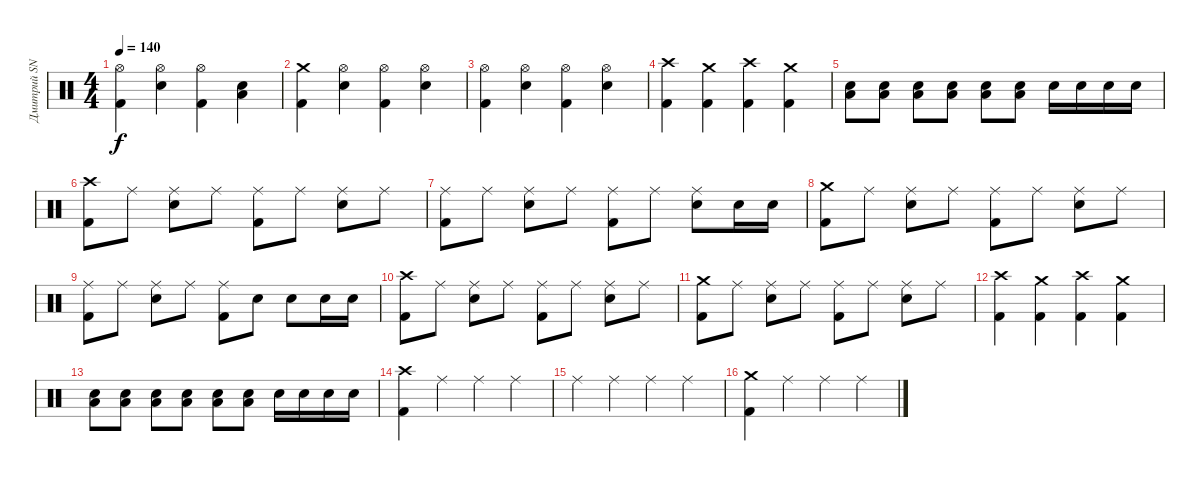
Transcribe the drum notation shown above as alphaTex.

\track ("Дмитрий SNAKE Хакимов" "Дмитрий SN") {instrument percussion}
\staff {score}
\articulation defaults
\ts (4 4)
\tempo 140
\clef neutral
\ks c
("Hi-Hat (open)" "Kick (hit) 2").4{dy f} ("Hi-Hat (open)" "Snare (hit) 2").4 ("Hi-Hat (open)" "Kick (hit) 2").4 ("Snare (hit) 2" "Low Tom (hit)").4 |
("Crash medium (hit)" "Kick (hit) 2").4 ("Hi-Hat (open)" "Snare (hit) 2").4 ("Hi-Hat (open)" "Kick (hit) 2").4 ("Hi-Hat (open)" "Snare (hit) 2").4 |
("Hi-Hat (open)" "Kick (hit) 2").4 ("Hi-Hat (open)" "Snare (hit) 2").4 ("Hi-Hat (open)" "Kick (hit) 2").4 ("Hi-Hat (open)" "Snare (hit) 2").4 |
("Crash high (hit)" "Kick (hit) 2").4 ("Crash medium (hit)" "Kick (hit) 2").4 ("Crash high (hit)" "Kick (hit) 2").4 ("Crash medium (hit)" "Kick (hit) 2").4 |
("Snare (hit) 2" "Low Tom (hit)").8 ("Snare (hit) 2" "Low Tom (hit)").8 ("Snare (hit) 2" "Low Tom (hit)").8 ("Snare (hit) 2" "Low Tom (hit)").8 ("Snare (hit) 2" "Low Tom (hit)").8 ("Snare (hit) 2" "Low Tom (hit)").8 "Snare (hit) 2".16 "Snare (hit) 2".16 "Snare (hit) 2".16 "Snare (hit) 2".16 |
("Crash high (hit)" "Kick (hit) 2").8 "Ride (middle)".8 ("Ride (middle)" "Snare (hit) 2").8 "Ride (middle)".8 ("Ride (middle)" "Kick (hit) 2").8 "Ride (middle)".8 ("Ride (middle)" "Snare (hit) 2").8 "Ride (middle)".8 |
("Ride (middle)" "Kick (hit) 2").8 "Ride (middle)".8 ("Ride (middle)" "Snare (hit) 2").8 "Ride (middle)".8 ("Ride (middle)" "Kick (hit) 2").8 "Ride (middle)".8 ("Ride (middle)" "Snare (hit) 2").8 "Snare (hit) 2".16 "Snare (hit) 2".16 |
("Crash medium (hit)" "Kick (hit) 2").8 "Ride (middle)".8 ("Ride (middle)" "Snare (hit) 2").8 "Ride (middle)".8 ("Ride (middle)" "Kick (hit) 2").8 "Ride (middle)".8 ("Ride (middle)" "Snare (hit) 2").8 "Ride (middle)".8 |
("Ride (middle)" "Kick (hit) 2").8 "Ride (middle)".8 ("Ride (middle)" "Snare (hit) 2").8 "Ride (middle)".8 ("Ride (middle)" "Kick (hit) 2").8 "Snare (hit) 2".8 "Snare (hit) 2".8 "Snare (hit) 2".16 "Snare (hit) 2".16 |
("Crash high (hit)" "Kick (hit) 2").8 "Ride (middle)".8 ("Ride (middle)" "Snare (hit) 2").8 "Ride (middle)".8 ("Ride (middle)" "Kick (hit) 2").8 "Ride (middle)".8 ("Ride (middle)" "Snare (hit) 2").8 "Ride (middle)".8 |
("Crash medium (hit)" "Kick (hit) 2").8 "Ride (middle)".8 ("Ride (middle)" "Snare (hit) 2").8 "Ride (middle)".8 ("Ride (middle)" "Kick (hit) 2").8 "Ride (middle)".8 ("Ride (middle)" "Snare (hit) 2").8 "Ride (middle)".8 |
("Crash high (hit)" "Kick (hit) 2").4 ("Crash medium (hit)" "Kick (hit) 2").4 ("Crash high (hit)" "Kick (hit) 2").4 ("Crash medium (hit)" "Kick (hit) 2").4 |
("Snare (hit) 2" "Low Tom (hit)").8 ("Snare (hit) 2" "Low Tom (hit)").8 ("Snare (hit) 2" "Low Tom (hit)").8 ("Snare (hit) 2" "Low Tom (hit)").8 ("Snare (hit) 2" "Low Tom (hit)").8 ("Snare (hit) 2" "Low Tom (hit)").8 "Snare (hit) 2".16 "Snare (hit) 2".16 "Snare (hit) 2".16 "Snare (hit) 2".16 |
("Crash high (hit)" "Kick (hit) 2").4 "Ride (middle)".4 "Ride (middle)".4 "Ride (middle)".4 |
"Ride (middle)".4 "Ride (middle)".4 "Ride (middle)".4 "Ride (middle)".4 |
("Crash medium (hit)" "Kick (hit) 2").4 "Ride (middle)".4 "Ride (middle)".4 "Ride (middle)".4
